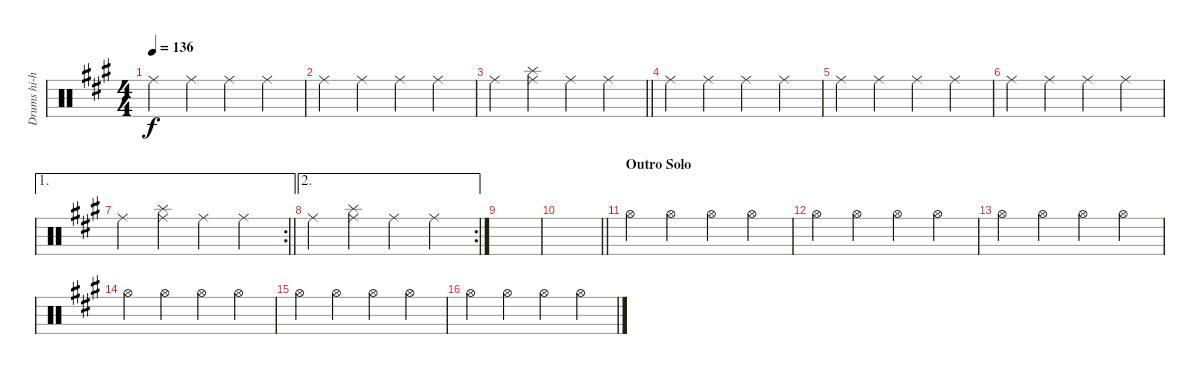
\track ("Drums hi-hat" "Drums hi-h") {instrument percussion}
\staff {score}
\articulation defaults
\ts (4 4)
\tempo 136
\clef neutral
\ks a "Ride (middle)".4{dy f} "Ride (middle)".4 "Ride (middle)".4 "Ride (middle)".4
|
"Ride (middle)".4 "Ride (middle)".4 "Ride (middle)".4 "Ride (middle)".4 |
\barLineRight lightlight "Ride (middle)".4
("Splash (hit)" "Ride (middle)").4 "Ride (middle)".4 "Ride (middle)".4 |
"Ride (middle)".4 "Ride (middle)".4 "Ride (middle)".4 "Ride (middle)".4 |
"Ride (middle)".4 "Ride (middle)".4 "Ride (middle)".4 "Ride (middle)".4 |
"Ride (middle)".4 "Ride (middle)".4 "Ride (middle)".4 "Ride (middle)".4 |
\ae 1
\rc 2
\barLineRight lightlight "Ride (middle)".4
("Splash (hit)" "Ride (middle)").4 "Ride (middle)".4 "Ride (middle)".4 |
\ae 2
\rc 2 "Ride (middle)".4
("Splash (hit)" "Ride (middle)").4 "Ride (middle)".4 "Ride (middle)".4 |
|
\barLineRight lightlight
|
\section ("" "Outro Solo")
"Hi-Hat (open)".4 "Hi-Hat (open)".4 "Hi-Hat (open)".4 "Hi-Hat (open)".4 |
"Hi-Hat (open)".4 "Hi-Hat (open)".4 "Hi-Hat (open)".4 "Hi-Hat (open)".4 |
"Hi-Hat (open)".4 "Hi-Hat (open)".4 "Hi-Hat (open)".4 "Hi-Hat (open)".4 |
"Hi-Hat (open)".4 "Hi-Hat (open)".4 "Hi-Hat (open)".4 "Hi-Hat (open)".4 |
"Hi-Hat (open)".4 "Hi-Hat (open)".4 "Hi-Hat (open)".4 "Hi-Hat (open)".4 |
"Hi-Hat (open)".4 "Hi-Hat (open)".4 "Hi-Hat (open)".4 "Hi-Hat (open)".4
